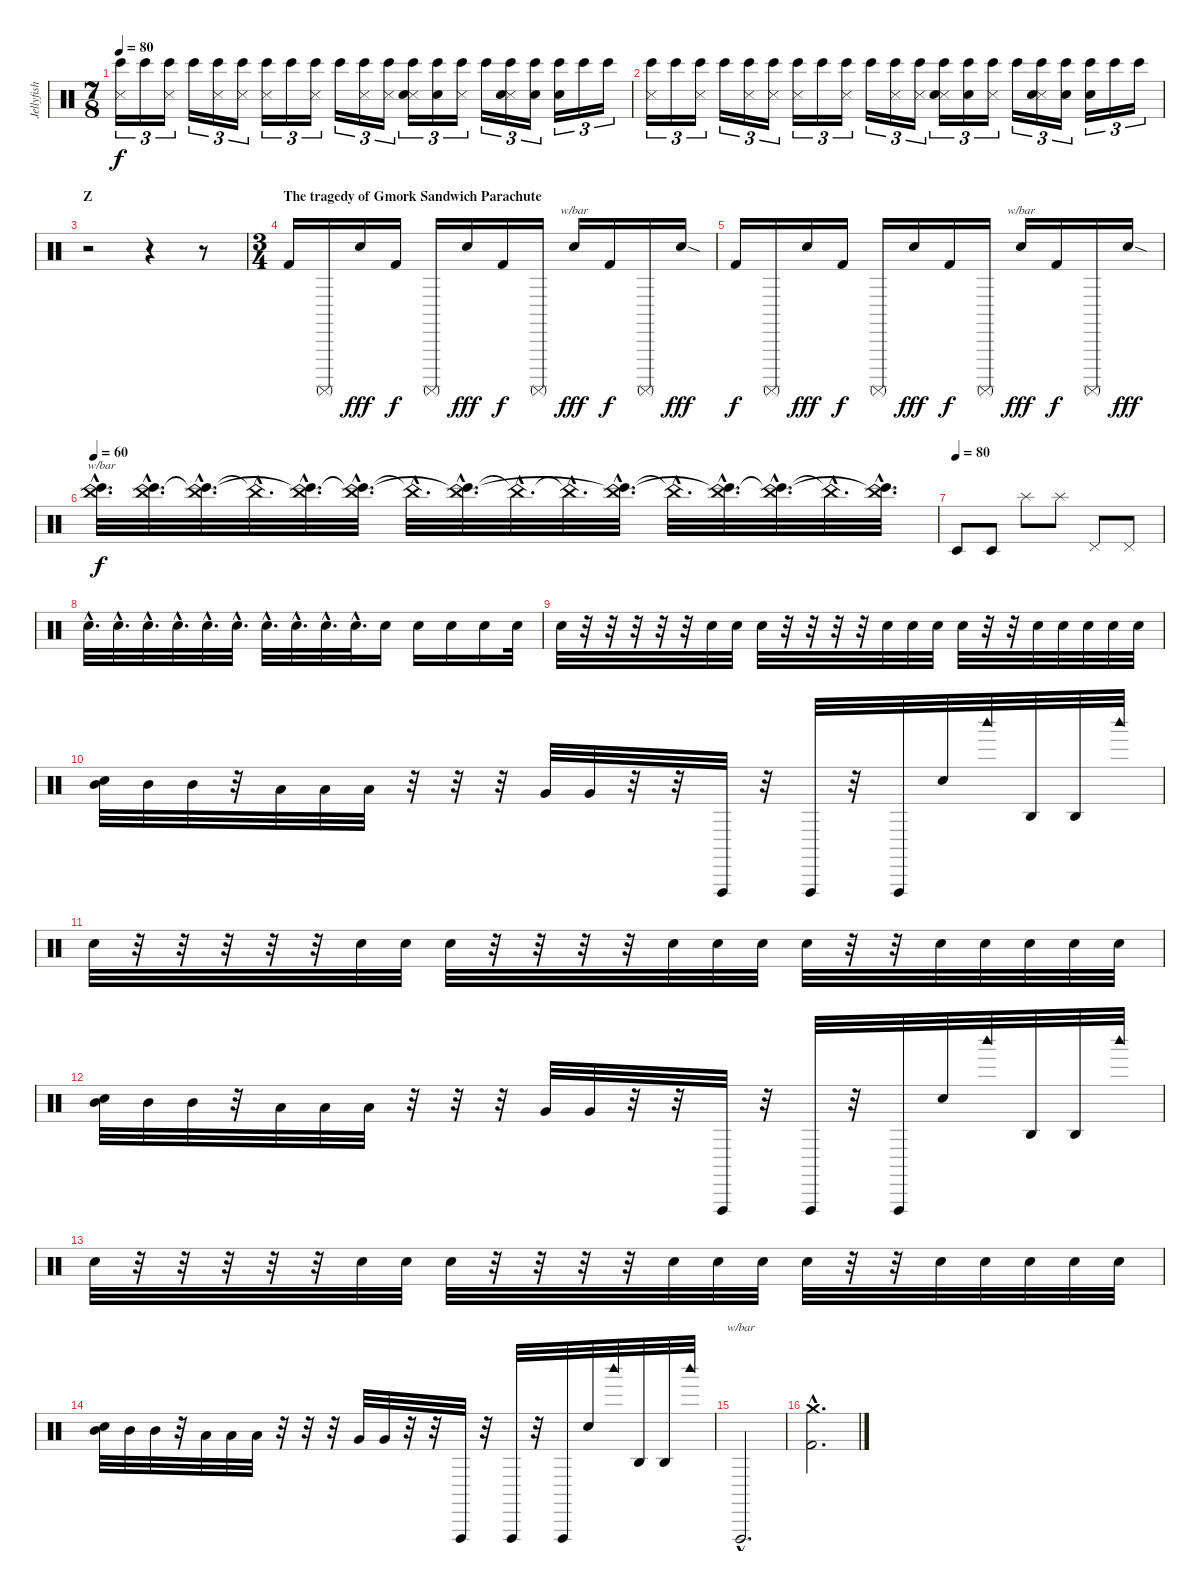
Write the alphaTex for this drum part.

\track ("Jellyfish" "Jellyfish") {instrument percussion}
\staff {score}
\articulation defaults
\ts (7 8)
\tempo 80
\clef neutral
\ks c
("Bongo High (hit)" "Snare (side stick) 3").16{tu (3 2) dy f} "Bongo High (hit)".16{tu (3 2)} ("Bongo High (hit)" "Snare (side stick) 3").16{tu (3 2)} "Bongo High (hit)".16{tu (3 2)} ("Bongo High (hit)" "Snare (side stick) 3").16{tu (3 2)} ("Bongo High (hit)" "Snare (side stick) 3").16{tu (3 2)} ("Bongo High (hit)" "Snare (side stick) 3").16{tu (3 2)} "Bongo High (hit)".16{tu (3 2)} ("Bongo High (hit)" "Snare (side stick) 3").16{tu (3 2)} "Bongo High (hit)".16{tu (3 2)} ("Bongo High (hit)" "Snare (side stick) 3").16{tu (3 2)} ("Bongo High (hit)" "Snare (side stick) 3").16{tu (3 2)} ("Bongo High (hit)" "Snare (side stick) 3" "Hand Clap (hit)").16{tu (3 2)} ("Bongo High (hit)" "Hand Clap (hit)").16{tu (3 2)} ("Bongo High (hit)" "Snare (side stick) 3").16{tu (3 2)} "Bongo High (hit)".16{tu (3 2)} ("Bongo High (hit)" "Snare (side stick) 3" "Hand Clap (hit)").16{tu (3 2)} ("Bongo High (hit)" "Hand Clap (hit)").16{tu (3 2)} ("Bongo High (hit)" "Hand Clap (hit)").16{tu (3 2)} "Bongo High (hit)".16{tu (3 2)} "Bongo High (hit)".16{tu (3 2)} |
("Bongo High (hit)" "Snare (side stick) 3").16{tu (3 2)} "Bongo High (hit)".16{tu (3 2)} ("Bongo High (hit)" "Snare (side stick) 3").16{tu (3 2)} "Bongo High (hit)".16{tu (3 2)} ("Bongo High (hit)" "Snare (side stick) 3").16{tu (3 2)} ("Bongo High (hit)" "Snare (side stick) 3").16{tu (3 2)} ("Bongo High (hit)" "Snare (side stick) 3").16{tu (3 2)} "Bongo High (hit)".16{tu (3 2)} ("Bongo High (hit)" "Snare (side stick) 3").16{tu (3 2)} "Bongo High (hit)".16{tu (3 2)} ("Bongo High (hit)" "Snare (side stick) 3").16{tu (3 2)} ("Bongo High (hit)" "Snare (side stick) 3").16{tu (3 2)} ("Bongo High (hit)" "Snare (side stick) 3" "Hand Clap (hit)").16{tu (3 2)} ("Bongo High (hit)" "Hand Clap (hit)").16{tu (3 2)} ("Bongo High (hit)" "Snare (side stick) 3").16{tu (3 2)} "Bongo High (hit)".16{tu (3 2)} ("Bongo High (hit)" "Snare (side stick) 3" "Hand Clap (hit)").16{tu (3 2)} ("Bongo High (hit)" "Hand Clap (hit)").16{tu (3 2)} ("Bongo High (hit)" "Hand Clap (hit)").16{tu (3 2)} "Bongo High (hit)".16{tu (3 2)} "Bongo High (hit)".16{tu (3 2)} |
\section ("" "Z")
r.2 r.4 r.8 |
\ts (3 4)
\section ("" "The tragedy of Gmork Sandwich Parachute")
"Kick (hit) 2".16 "Surdo (mute)".16 "Metronome (bell)"{be (custom 0 0 10 10 20 10 30 0 40 0 50 10 60 10)}.16{dy fff} "Kick (hit) 2".16{dy f} "Surdo (mute)".16 "Metronome (bell)"{be (custom 0 0 10 2 20 2 30 0 40 0 50 2 60 2)}.16{dy fff} "Kick (hit) 2".16{dy f} "Surdo (mute)".16 "Metronome (bell)".16{tbe (custom default 0 0 7 -8 21 20 25 -4 30 4 32 -18 43 0 56 12 60 0) dy fff} "Kick (hit) 2".16{dy f} "Surdo (mute)".16 "Metronome (bell)"{sod}.16{dy fff} |
"Kick (hit) 2".16{dy f} "Surdo (mute)".16 "Metronome (bell)"{be (custom 0 0 10 10 20 10 30 0 40 0 50 10 60 10)}.16{dy fff} "Kick (hit) 2".16{dy f} "Surdo (mute)".16 "Metronome (bell)"{be (custom 0 0 10 2 20 2 30 0 40 0 50 2 60 2)}.16{dy fff} "Kick (hit) 2".16{dy f} "Surdo (mute)".16 "Metronome (bell)".16{tbe (custom default 0 0 7 -8 21 20 25 -4 30 4 32 -18 43 0 56 12 60 0) dy fff} "Kick (hit) 2".16{dy f} "Surdo (mute)".16 "Metronome (bell)"{sod}.16{dy fff} |
\tempo 60
("Bongo High (hit)"{hac} "China (hit)"{hac}).32{d tbe (custom default 0 0 8 -16 11 -16 15 -4 17 -12 19 -8 30 -24 37 -12 40 -8 44 -14 51 -4 60 0) dy f} ("Bongo High (hit)"{hac} "China (hit)"{hac t}).32{d} ("Bongo High (hit)"{hac} "China (hit)"{hac t}).32{d} "China (hit)"{hac t}.32{d} ("Bongo High (hit)"{hac} "China (hit)"{hac t}).32{d} ("Bongo High (hit)"{hac} "China (hit)"{hac t}).32{d} "China (hit)"{hac t}.32{d} ("Bongo High (hit)"{hac} "China (hit)"{hac t}).32{d} "China (hit)"{hac t}.32{d} "China (hit)"{hac t}.32{d} ("Bongo High (hit)"{hac} "China (hit)"{hac t}).32{d} "China (hit)"{hac t}.32{d} ("Bongo High (hit)"{hac} "China (hit)"{hac t}).32{d} ("Bongo High (hit)"{hac} "China (hit)"{hac t}).32{d} "China (hit)"{hac t}.32{d} ("Bongo High (hit)"{hac} "China (hit)"{hac t}).32{d} |
\tempo (80)
"Timbale low (hit)".8 "Timbale low (hit)".8 "Splash (hit)".8 "Splash (hit)".8 "Pedal Hi-Hat (hit)".8 "Pedal Hi-Hat (hit)".8 |
"Snare (hit) 2"{hac}.32{d} "Snare (hit) 2"{hac}.32{d} "Snare (hit) 2"{hac}.32{d} "Snare (hit) 2"{hac}.32{d} "Snare (hit) 2"{hac}.32{d} "Snare (hit) 2"{hac}.32{d} "Snare (hit) 2"{hac}.32{d} "Snare (hit) 2"{hac}.32{d} "Snare (hit) 2"{hac}.32{d} "Snare (hit) 2"{hac}.32{d} "Snare (hit) 2".16 "Snare (hit) 2".16 "Snare (hit) 2".16 "Snare (hit) 2".16 "Snare (hit) 2".32 |
"Snare (hit) 2".32 r.32 r.32 r.32 r.32 r.32 "Snare (hit) 2".32 "Snare (hit) 2".32 "Snare (hit) 2".32 r.32 r.32 r.32 r.32 "Snare (hit) 2".32 "Snare (hit) 2".32 "Snare (hit) 2".32 "Snare (hit) 2".32 r.32 r.32 "Hand Clap (hit)".32 "Snare (hit) 2".32 "Snare (hit) 2".32 "Hand Clap (hit)".32 "Hand Clap (hit)".32 |
("Mid Tom (hit)" "Snare (hit) 2").32 "Mid Tom (hit)".32 "Mid Tom (hit)".32 r.32 "Low Tom (hit)".32 "Low Tom (hit)".32 "Low Tom (hit)".32 r.32 r.32 r.32 "Very Low Tom (hit)".32 "Very Low Tom (hit)".32 r.32 r.32 "Vibraslap (hit)".32 r.32 "Vibraslap (hit)".32 r.32 "Vibraslap (hit)".32 "Hand Clap (hit)".32 "Woodblock high (hit)".32 "Agogo high (hit)".32 "Agogo high (hit)".32 "Woodblock high (hit)".32 |
"Snare (hit) 2".32 r.32 r.32 r.32 r.32 r.32 "Snare (hit) 2".32 "Snare (hit) 2".32 "Snare (hit) 2".32 r.32 r.32 r.32 r.32 "Snare (hit) 2".32 "Snare (hit) 2".32 "Snare (hit) 2".32 "Snare (hit) 2".32 r.32 r.32 "Hand Clap (hit)".32 "Snare (hit) 2".32 "Snare (hit) 2".32 "Hand Clap (hit)".32 "Hand Clap (hit)".32 |
("Mid Tom (hit)" "Snare (hit) 2").32 "Mid Tom (hit)".32 "Mid Tom (hit)".32 r.32 "Low Tom (hit)".32 "Low Tom (hit)".32 "Low Tom (hit)".32 r.32 r.32 r.32 "Very Low Tom (hit)".32 "Very Low Tom (hit)".32 r.32 r.32 "Vibraslap (hit)".32 r.32 "Vibraslap (hit)".32 r.32 "Vibraslap (hit)".32 "Hand Clap (hit)".32 "Woodblock high (hit)".32 "Agogo high (hit)".32 "Agogo high (hit)".32 "Woodblock high (hit)".32 |
"Snare (hit) 2".32 r.32 r.32 r.32 r.32 r.32 "Snare (hit) 2".32 "Snare (hit) 2".32 "Snare (hit) 2".32 r.32 r.32 r.32 r.32 "Snare (hit) 2".32 "Snare (hit) 2".32 "Snare (hit) 2".32 "Snare (hit) 2".32 r.32 r.32 "Hand Clap (hit)".32 "Snare (hit) 2".32 "Snare (hit) 2".32 "Hand Clap (hit)".32 "Hand Clap (hit)".32 |
("Mid Tom (hit)" "Snare (hit) 2").32 "Mid Tom (hit)".32 "Mid Tom (hit)".32 r.32 "Low Tom (hit)".32 "Low Tom (hit)".32 "Low Tom (hit)".32 r.32 r.32 r.32 "Very Low Tom (hit)".32 "Very Low Tom (hit)".32 r.32 r.32 "Vibraslap (hit)".32 r.32 "Vibraslap (hit)".32 r.32 "Vibraslap (hit)".32 "Hand Clap (hit)".32 "Woodblock high (hit)".32 "Agogo high (hit)".32 "Agogo high (hit)".32 "Woodblock high (hit)".32 |
"Vibraslap (hit)"{hac}.2{d tbe (custom default 0 0 12 -16 21 22 45 -20 48 16 60 -20)} |
("Crash medium (hit)"{hac} "Kick (hit) 2"{hac}).2{d}
